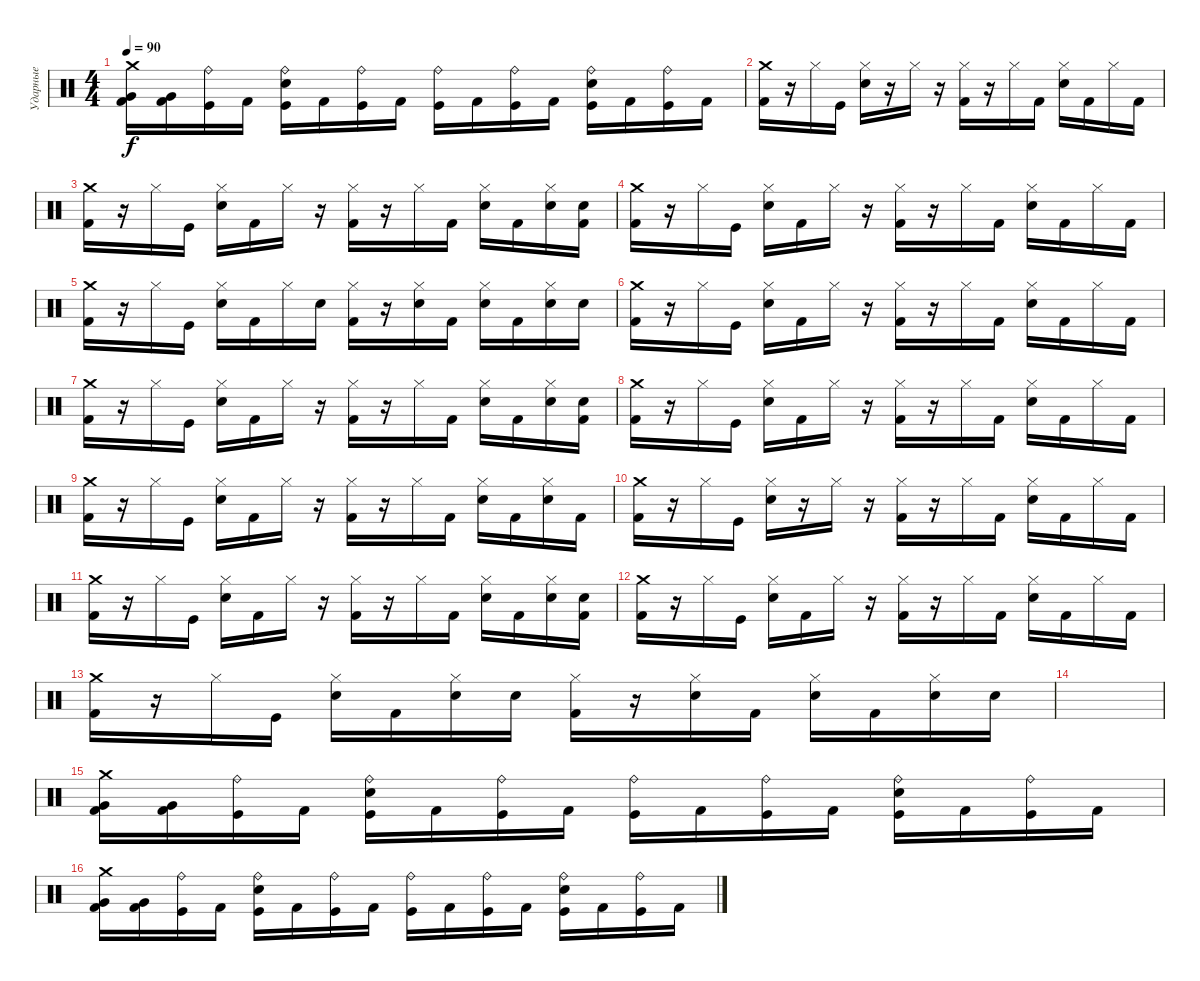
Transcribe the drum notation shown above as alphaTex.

\track ("Ударные" "Ударные") {instrument percussion}
\staff {score}
\articulation defaults
\ts (4 4)
\tempo 90
\clef neutral
\ks c
("Very Low Tom (hit)" "Kick (hit) 2" "Crash medium (hit)").16{dy f} ("Very Low Tom (hit)" "Kick (hit) 2").16 ("Kick (hit)" "Ride (bell)").16 "Kick (hit) 2".16 ("Kick (hit)" "Electric Snare (hit)" "Ride (bell)").16 "Kick (hit) 2".16 ("Kick (hit)" "Ride (bell)").16 "Kick (hit) 2".16 ("Kick (hit)" "Ride (bell)").16 "Kick (hit) 2".16 ("Kick (hit)" "Ride (bell)").16 "Kick (hit) 2".16 ("Kick (hit)" "Electric Snare (hit)" "Ride (bell)").16 "Kick (hit) 2".16 ("Kick (hit)" "Ride (bell)").16 "Kick (hit) 2".16 |
("Crash medium (hit)" "Kick (hit) 2").16 r.16 "Hi-Hat (closed)".16 "Kick (hit)".16 ("Hi-Hat (closed)" "Electric Snare (hit)").16 r.16 "Hi-Hat (closed)".16 r.16 ("Hi-Hat (closed)" "Kick (hit) 2").16 r.16 "Hi-Hat (closed)".16 "Kick (hit) 2".16 ("Hi-Hat (closed)" "Electric Snare (hit)").16 "Kick (hit) 2".16 "Hi-Hat (closed)".16 "Kick (hit) 2".16 |
("Crash medium (hit)" "Kick (hit) 2").16 r.16 "Hi-Hat (closed)".16 "Kick (hit)".16 ("Hi-Hat (closed)" "Electric Snare (hit)").16 "Kick (hit) 2".16 "Hi-Hat (closed)".16 r.16 ("Hi-Hat (closed)" "Kick (hit) 2").16 r.16 "Hi-Hat (closed)".16 "Kick (hit) 2".16 ("Hi-Hat (closed)" "Electric Snare (hit)").16 "Kick (hit) 2".16 ("Hi-Hat (closed)" "Electric Snare (hit)").16 ("Kick (hit) 2" "Electric Snare (hit)").16 |
("Crash medium (hit)" "Kick (hit) 2").16 r.16 "Hi-Hat (closed)".16 "Kick (hit)".16 ("Hi-Hat (closed)" "Electric Snare (hit)").16 "Kick (hit) 2".16 "Hi-Hat (closed)".16 r.16 ("Hi-Hat (closed)" "Kick (hit) 2").16 r.16 "Hi-Hat (closed)".16 "Kick (hit) 2".16 ("Hi-Hat (closed)" "Electric Snare (hit)").16 "Kick (hit) 2".16 "Hi-Hat (closed)".16 "Kick (hit) 2".16 |
("Crash medium (hit)" "Kick (hit) 2").16 r.16 "Hi-Hat (closed)".16 "Kick (hit)".16 ("Hi-Hat (closed)" "Electric Snare (hit)").16 "Kick (hit) 2".16 "Hi-Hat (closed)".16 "Electric Snare (hit)".16 ("Hi-Hat (closed)" "Kick (hit) 2").16 r.16 ("Hi-Hat (closed)" "Electric Snare (hit)").16 "Kick (hit) 2".16 ("Hi-Hat (closed)" "Electric Snare (hit)").16 "Kick (hit) 2".16 ("Hi-Hat (closed)" "Electric Snare (hit)").16 "Electric Snare (hit)".16 |
("Crash medium (hit)" "Kick (hit) 2").16 r.16 "Hi-Hat (closed)".16 "Kick (hit)".16 ("Hi-Hat (closed)" "Electric Snare (hit)").16 "Kick (hit) 2".16 "Hi-Hat (closed)".16 r.16 ("Hi-Hat (closed)" "Kick (hit) 2").16 r.16 "Hi-Hat (closed)".16 "Kick (hit) 2".16 ("Hi-Hat (closed)" "Electric Snare (hit)").16 "Kick (hit) 2".16 "Hi-Hat (closed)".16 "Kick (hit) 2".16 |
("Crash medium (hit)" "Kick (hit) 2").16 r.16 "Hi-Hat (closed)".16 "Kick (hit)".16 ("Hi-Hat (closed)" "Electric Snare (hit)").16 "Kick (hit) 2".16 "Hi-Hat (closed)".16 r.16 ("Hi-Hat (closed)" "Kick (hit) 2").16 r.16 "Hi-Hat (closed)".16 "Kick (hit) 2".16 ("Hi-Hat (closed)" "Electric Snare (hit)").16 "Kick (hit) 2".16 ("Hi-Hat (closed)" "Electric Snare (hit)").16 ("Kick (hit) 2" "Electric Snare (hit)").16 |
("Crash medium (hit)" "Kick (hit) 2").16 r.16 "Hi-Hat (closed)".16 "Kick (hit)".16 ("Hi-Hat (closed)" "Electric Snare (hit)").16 "Kick (hit) 2".16 "Hi-Hat (closed)".16 r.16 ("Hi-Hat (closed)" "Kick (hit) 2").16 r.16 "Hi-Hat (closed)".16 "Kick (hit) 2".16 ("Hi-Hat (closed)" "Electric Snare (hit)").16 "Kick (hit) 2".16 "Hi-Hat (closed)".16 "Kick (hit) 2".16 |
("Crash medium (hit)" "Kick (hit) 2").16 r.16 "Hi-Hat (closed)".16 "Kick (hit)".16 ("Hi-Hat (closed)" "Electric Snare (hit)").16 "Kick (hit) 2".16 "Hi-Hat (closed)".16 r.16 ("Hi-Hat (closed)" "Kick (hit) 2").16 r.16 "Hi-Hat (closed)".16 "Kick (hit) 2".16 ("Hi-Hat (closed)" "Electric Snare (hit)").16 "Kick (hit) 2".16 ("Hi-Hat (closed)" "Electric Snare (hit)").16 "Kick (hit) 2".16 |
("Crash medium (hit)" "Kick (hit) 2").16 r.16 "Hi-Hat (closed)".16 "Kick (hit)".16 ("Hi-Hat (closed)" "Electric Snare (hit)").16 r.16 "Hi-Hat (closed)".16 r.16 ("Hi-Hat (closed)" "Kick (hit) 2").16 r.16 "Hi-Hat (closed)".16 "Kick (hit) 2".16 ("Hi-Hat (closed)" "Electric Snare (hit)").16 "Kick (hit) 2".16 "Hi-Hat (closed)".16 "Kick (hit) 2".16 |
("Crash medium (hit)" "Kick (hit) 2").16 r.16 "Hi-Hat (closed)".16 "Kick (hit)".16 ("Hi-Hat (closed)" "Electric Snare (hit)").16 "Kick (hit) 2".16 "Hi-Hat (closed)".16 r.16 ("Hi-Hat (closed)" "Kick (hit) 2").16 r.16 "Hi-Hat (closed)".16 "Kick (hit) 2".16 ("Hi-Hat (closed)" "Electric Snare (hit)").16 "Kick (hit) 2".16 ("Hi-Hat (closed)" "Electric Snare (hit)").16 ("Kick (hit) 2" "Electric Snare (hit)").16 |
("Crash medium (hit)" "Kick (hit) 2").16 r.16 "Hi-Hat (closed)".16 "Kick (hit)".16 ("Hi-Hat (closed)" "Electric Snare (hit)").16 "Kick (hit) 2".16 "Hi-Hat (closed)".16 r.16 ("Hi-Hat (closed)" "Kick (hit) 2").16 r.16 "Hi-Hat (closed)".16 "Kick (hit) 2".16 ("Hi-Hat (closed)" "Electric Snare (hit)").16 "Kick (hit) 2".16 "Hi-Hat (closed)".16 "Kick (hit) 2".16 |
("Crash medium (hit)" "Kick (hit) 2").16 r.16 "Hi-Hat (closed)".16 "Kick (hit)".16 ("Hi-Hat (closed)" "Electric Snare (hit)").16 "Kick (hit) 2".16 ("Hi-Hat (closed)" "Electric Snare (hit)").16 "Electric Snare (hit)".16 ("Hi-Hat (closed)" "Kick (hit) 2").16 r.16 ("Hi-Hat (closed)" "Electric Snare (hit)").16 "Kick (hit) 2".16 ("Hi-Hat (closed)" "Electric Snare (hit)").16 "Kick (hit) 2".16 ("Hi-Hat (closed)" "Electric Snare (hit)").16 "Electric Snare (hit)".16 |
|
("Very Low Tom (hit)" "Kick (hit) 2" "Crash medium (hit)").16 ("Very Low Tom (hit)" "Kick (hit) 2").16 ("Kick (hit)" "Ride (bell)").16 "Kick (hit) 2".16 ("Kick (hit)" "Electric Snare (hit)" "Ride (bell)").16 "Kick (hit) 2".16 ("Kick (hit)" "Ride (bell)").16 "Kick (hit) 2".16 ("Kick (hit)" "Ride (bell)").16 "Kick (hit) 2".16 ("Kick (hit)" "Ride (bell)").16 "Kick (hit) 2".16 ("Kick (hit)" "Electric Snare (hit)" "Ride (bell)").16 "Kick (hit) 2".16 ("Kick (hit)" "Ride (bell)").16 "Kick (hit) 2".16 |
("Very Low Tom (hit)" "Kick (hit) 2" "Crash medium (hit)").16 ("Very Low Tom (hit)" "Kick (hit) 2").16 ("Kick (hit)" "Ride (bell)").16 "Kick (hit) 2".16 ("Kick (hit)" "Electric Snare (hit)" "Ride (bell)").16 "Kick (hit) 2".16 ("Kick (hit)" "Ride (bell)").16 "Kick (hit) 2".16 ("Kick (hit)" "Ride (bell)").16 "Kick (hit) 2".16 ("Kick (hit)" "Ride (bell)").16 "Kick (hit) 2".16 ("Kick (hit)" "Electric Snare (hit)" "Ride (bell)").16 "Kick (hit) 2".16 ("Kick (hit)" "Ride (bell)").16 "Kick (hit) 2".16
